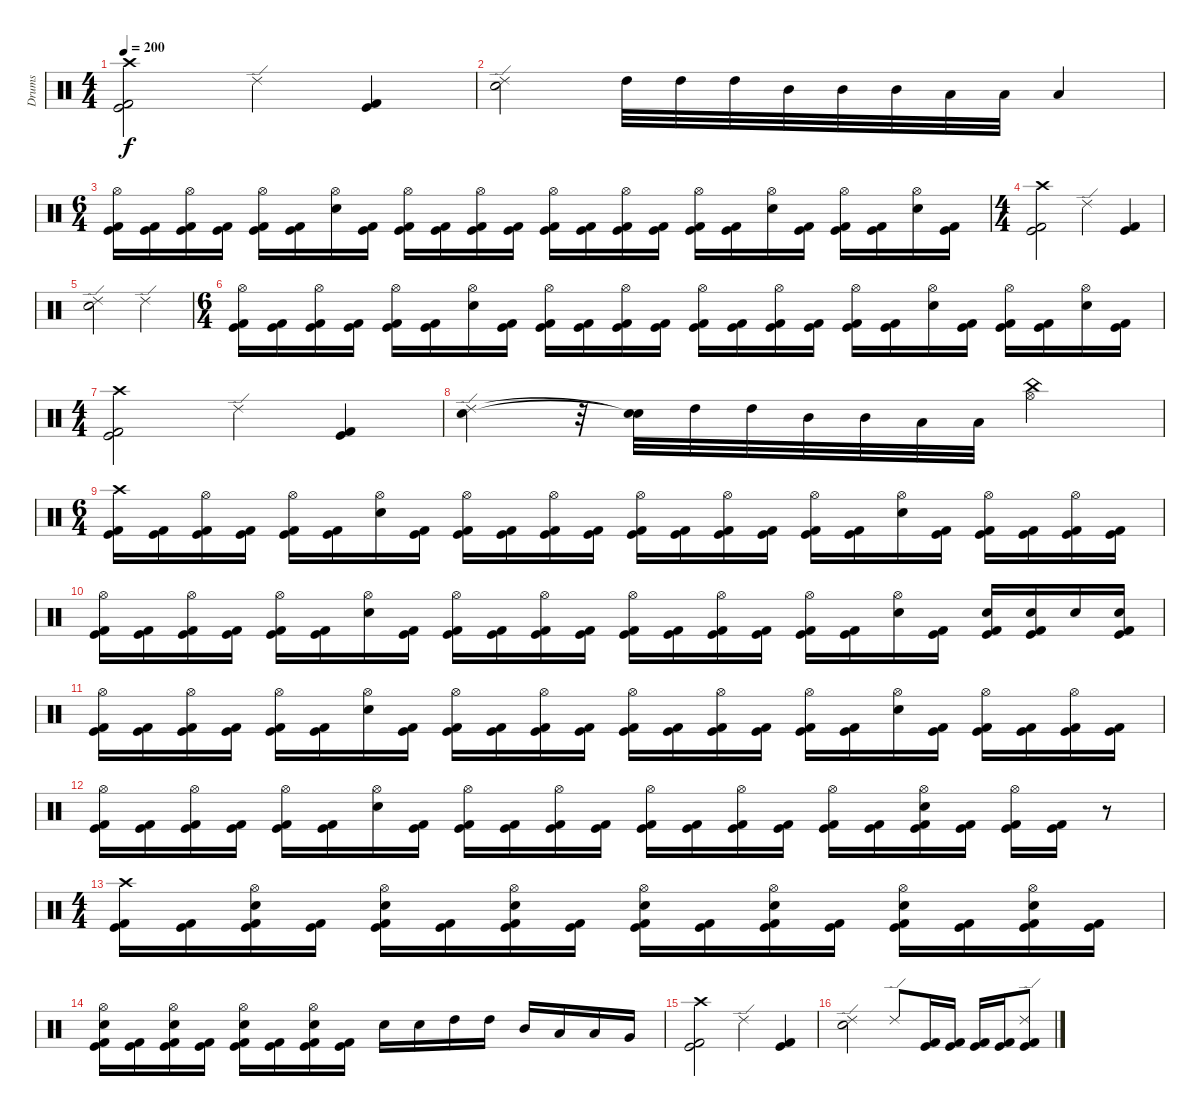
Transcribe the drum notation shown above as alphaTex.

\track ("Drums" "Drums") {instrument percussion}
\staff {score}
\articulation defaults
\ts (4 4)
\tempo 200
\clef neutral
\ks c
("Crash high (hit)" "Kick (hit)" "Kick (hit) 2").2{dy f} "Ride (edge) 2".4 ("Kick (hit)" "Kick (hit) 2").4 |
("Ride (edge) 2" "Electric Snare (hit)").2 "High Tom (hit)".32 "High Tom (hit)".32 "High Tom (hit)".32 "Mid Tom (hit)".32 "Mid Tom (hit)".32 "Mid Tom (hit)".32 "Low Tom (hit)".32 "Low Tom (hit)".32 "Low Tom (hit)".4 |
\ts (6 4)
("Hi-Hat (open)" "Kick (hit)" "Kick (hit) 2").16 ("Kick (hit)" "Kick (hit) 2").16 ("Hi-Hat (open)" "Kick (hit)" "Kick (hit) 2").16 ("Kick (hit)" "Kick (hit) 2").16 ("Hi-Hat (open)" "Kick (hit)" "Kick (hit) 2").16 ("Kick (hit)" "Kick (hit) 2").16 ("Hi-Hat (open)" "Electric Snare (hit)").16 ("Kick (hit)" "Kick (hit) 2").16 ("Hi-Hat (open)" "Kick (hit)" "Kick (hit) 2").16 ("Kick (hit)" "Kick (hit) 2").16 ("Hi-Hat (open)" "Kick (hit)" "Kick (hit) 2").16 ("Kick (hit)" "Kick (hit) 2").16 ("Hi-Hat (open)" "Kick (hit)" "Kick (hit) 2").16 ("Kick (hit)" "Kick (hit) 2").16 ("Hi-Hat (open)" "Kick (hit)" "Kick (hit) 2").16 ("Kick (hit)" "Kick (hit) 2").16 ("Hi-Hat (open)" "Kick (hit)" "Kick (hit) 2").16 ("Kick (hit)" "Kick (hit) 2").16 ("Hi-Hat (open)" "Electric Snare (hit)").16 ("Kick (hit)" "Kick (hit) 2").16 ("Hi-Hat (open)" "Kick (hit)" "Kick (hit) 2").16 ("Kick (hit)" "Kick (hit) 2").16 ("Hi-Hat (open)" "Electric Snare (hit)").16 ("Kick (hit)" "Kick (hit) 2").16 |
\ts (4 4)
("Crash high (hit)" "Kick (hit)" "Kick (hit) 2").2 "Ride (edge) 2".4 ("Kick (hit)" "Kick (hit) 2").4 |
("Ride (edge) 2" "Electric Snare (hit)").2 "Ride (edge) 2".2 |
\ts (6 4)
("Hi-Hat (open)" "Kick (hit)" "Kick (hit) 2").16 ("Kick (hit)" "Kick (hit) 2").16 ("Hi-Hat (open)" "Kick (hit)" "Kick (hit) 2").16 ("Kick (hit)" "Kick (hit) 2").16 ("Hi-Hat (open)" "Kick (hit)" "Kick (hit) 2").16 ("Kick (hit)" "Kick (hit) 2").16 ("Hi-Hat (open)" "Electric Snare (hit)").16 ("Kick (hit)" "Kick (hit) 2").16 ("Hi-Hat (open)" "Kick (hit)" "Kick (hit) 2").16 ("Kick (hit)" "Kick (hit) 2").16 ("Hi-Hat (open)" "Kick (hit)" "Kick (hit) 2").16 ("Kick (hit)" "Kick (hit) 2").16 ("Hi-Hat (open)" "Kick (hit)" "Kick (hit) 2").16 ("Kick (hit)" "Kick (hit) 2").16 ("Hi-Hat (open)" "Kick (hit)" "Kick (hit) 2").16 ("Kick (hit)" "Kick (hit) 2").16 ("Hi-Hat (open)" "Kick (hit)" "Kick (hit) 2").16 ("Kick (hit)" "Kick (hit) 2").16 ("Hi-Hat (open)" "Electric Snare (hit)").16 ("Kick (hit)" "Kick (hit) 2").16 ("Hi-Hat (open)" "Kick (hit)" "Kick (hit) 2").16 ("Kick (hit)" "Kick (hit) 2").16 ("Hi-Hat (open)" "Electric Snare (hit)").16 ("Kick (hit)" "Kick (hit) 2").16 |
\ts (4 4)
("Crash high (hit)" "Kick (hit)" "Kick (hit) 2").2 "Ride (edge) 2".4 ("Kick (hit)" "Kick (hit) 2").4 |
("Ride (edge) 2" "Electric Snare (hit)").4 r.32 ("Snare (hit)"{t} "Snare (hit)"{t}).32 "High Tom (hit)".32 "High Tom (hit)".32 "Mid Tom (hit)".32 "Mid Tom (hit)".32 "Low Tom (hit)".32 "Low Tom (hit)".32 ("China (hit)" "Hi-Hat (open)").2 |
\ts (6 4)
("Crash high (hit)" "Kick (hit)" "Kick (hit) 2").16 ("Kick (hit)" "Kick (hit) 2").16 ("Hi-Hat (open)" "Kick (hit)" "Kick (hit) 2").16 ("Kick (hit)" "Kick (hit) 2").16 ("Hi-Hat (open)" "Kick (hit)" "Kick (hit) 2").16 ("Kick (hit)" "Kick (hit) 2").16 ("Hi-Hat (open)" "Electric Snare (hit)").16 ("Kick (hit)" "Kick (hit) 2").16 ("Hi-Hat (open)" "Kick (hit)" "Kick (hit) 2").16 ("Kick (hit)" "Kick (hit) 2").16 ("Hi-Hat (open)" "Kick (hit)" "Kick (hit) 2").16 ("Kick (hit)" "Kick (hit) 2").16 ("Hi-Hat (open)" "Kick (hit)" "Kick (hit) 2").16 ("Kick (hit)" "Kick (hit) 2").16 ("Hi-Hat (open)" "Kick (hit)" "Kick (hit) 2").16 ("Kick (hit)" "Kick (hit) 2").16 ("Hi-Hat (open)" "Kick (hit)" "Kick (hit) 2").16 ("Kick (hit)" "Kick (hit) 2").16 ("Hi-Hat (open)" "Electric Snare (hit)").16 ("Kick (hit)" "Kick (hit) 2").16 ("Hi-Hat (open)" "Kick (hit)" "Kick (hit) 2").16 ("Kick (hit)" "Kick (hit) 2").16 ("Hi-Hat (open)" "Kick (hit)" "Kick (hit) 2").16 ("Kick (hit)" "Kick (hit) 2").16 |
("Hi-Hat (open)" "Kick (hit)" "Kick (hit) 2").16 ("Kick (hit)" "Kick (hit) 2").16 ("Hi-Hat (open)" "Kick (hit)" "Kick (hit) 2").16 ("Kick (hit)" "Kick (hit) 2").16 ("Hi-Hat (open)" "Kick (hit)" "Kick (hit) 2").16 ("Kick (hit)" "Kick (hit) 2").16 ("Hi-Hat (open)" "Electric Snare (hit)").16 ("Kick (hit)" "Kick (hit) 2").16 ("Hi-Hat (open)" "Kick (hit)" "Kick (hit) 2").16 ("Kick (hit)" "Kick (hit) 2").16 ("Hi-Hat (open)" "Kick (hit)" "Kick (hit) 2").16 ("Kick (hit)" "Kick (hit) 2").16 ("Hi-Hat (open)" "Kick (hit)" "Kick (hit) 2").16 ("Kick (hit)" "Kick (hit) 2").16 ("Hi-Hat (open)" "Kick (hit)" "Kick (hit) 2").16 ("Kick (hit)" "Kick (hit) 2").16 ("Hi-Hat (open)" "Kick (hit)" "Kick (hit) 2").16 ("Kick (hit)" "Kick (hit) 2").16 ("Hi-Hat (open)" "Electric Snare (hit)").16 ("Kick (hit)" "Kick (hit) 2").16 ("Electric Snare (hit)" "Kick (hit)" "Kick (hit) 2").16 ("Electric Snare (hit)" "Kick (hit)" "Kick (hit) 2").16 "Electric Snare (hit)".16 ("Electric Snare (hit)" "Kick (hit)" "Kick (hit) 2").16 |
("Hi-Hat (open)" "Kick (hit)" "Kick (hit) 2").16 ("Kick (hit)" "Kick (hit) 2").16 ("Hi-Hat (open)" "Kick (hit)" "Kick (hit) 2").16 ("Kick (hit)" "Kick (hit) 2").16 ("Hi-Hat (open)" "Kick (hit)" "Kick (hit) 2").16 ("Kick (hit)" "Kick (hit) 2").16 ("Hi-Hat (open)" "Electric Snare (hit)").16 ("Kick (hit)" "Kick (hit) 2").16 ("Hi-Hat (open)" "Kick (hit)" "Kick (hit) 2").16 ("Kick (hit)" "Kick (hit) 2").16 ("Hi-Hat (open)" "Kick (hit)" "Kick (hit) 2").16 ("Kick (hit)" "Kick (hit) 2").16 ("Hi-Hat (open)" "Kick (hit)" "Kick (hit) 2").16 ("Kick (hit)" "Kick (hit) 2").16 ("Hi-Hat (open)" "Kick (hit)" "Kick (hit) 2").16 ("Kick (hit)" "Kick (hit) 2").16 ("Hi-Hat (open)" "Kick (hit)" "Kick (hit) 2").16 ("Kick (hit)" "Kick (hit) 2").16 ("Hi-Hat (open)" "Electric Snare (hit)").16 ("Kick (hit)" "Kick (hit) 2").16 ("Hi-Hat (open)" "Kick (hit)" "Kick (hit) 2").16 ("Kick (hit)" "Kick (hit) 2").16 ("Hi-Hat (open)" "Kick (hit)" "Kick (hit) 2").16 ("Kick (hit)" "Kick (hit) 2").16 |
("Hi-Hat (open)" "Kick (hit)" "Kick (hit) 2").16 ("Kick (hit)" "Kick (hit) 2").16 ("Hi-Hat (open)" "Kick (hit)" "Kick (hit) 2").16 ("Kick (hit)" "Kick (hit) 2").16 ("Hi-Hat (open)" "Kick (hit)" "Kick (hit) 2").16 ("Kick (hit)" "Kick (hit) 2").16 ("Hi-Hat (open)" "Electric Snare (hit)").16 ("Kick (hit)" "Kick (hit) 2").16 ("Hi-Hat (open)" "Kick (hit)" "Kick (hit) 2").16 ("Kick (hit)" "Kick (hit) 2").16 ("Hi-Hat (open)" "Kick (hit)" "Kick (hit) 2").16 ("Kick (hit)" "Kick (hit) 2").16 ("Hi-Hat (open)" "Kick (hit)" "Kick (hit) 2").16 ("Kick (hit)" "Kick (hit) 2").16 ("Hi-Hat (open)" "Kick (hit)" "Kick (hit) 2").16 ("Kick (hit)" "Kick (hit) 2").16 ("Hi-Hat (open)" "Kick (hit)" "Kick (hit) 2").16 ("Kick (hit)" "Kick (hit) 2").16 ("Hi-Hat (open)" "Electric Snare (hit)" "Kick (hit)" "Kick (hit) 2").16 ("Kick (hit)" "Kick (hit) 2").16 ("Hi-Hat (open)" "Kick (hit)" "Kick (hit) 2").16 ("Kick (hit)" "Kick (hit) 2").16 r.8 |
\ts (4 4)
("Crash high (hit)" "Kick (hit)" "Kick (hit) 2").16 ("Kick (hit)" "Kick (hit) 2").16 ("Hi-Hat (open)" "Electric Snare (hit)" "Kick (hit)" "Kick (hit) 2").16 ("Kick (hit)" "Kick (hit) 2").16 ("Hi-Hat (open)" "Electric Snare (hit)" "Kick (hit)" "Kick (hit) 2").16 ("Kick (hit)" "Kick (hit) 2").16 ("Hi-Hat (open)" "Electric Snare (hit)" "Kick (hit)" "Kick (hit) 2").16 ("Kick (hit)" "Kick (hit) 2").16 ("Hi-Hat (open)" "Electric Snare (hit)" "Kick (hit)" "Kick (hit) 2").16 ("Kick (hit)" "Kick (hit) 2").16 ("Hi-Hat (open)" "Electric Snare (hit)" "Kick (hit)" "Kick (hit) 2").16 ("Kick (hit)" "Kick (hit) 2").16 ("Hi-Hat (open)" "Electric Snare (hit)" "Kick (hit)" "Kick (hit) 2").16 ("Kick (hit)" "Kick (hit) 2").16 ("Hi-Hat (open)" "Electric Snare (hit)" "Kick (hit)" "Kick (hit) 2").16 ("Kick (hit)" "Kick (hit) 2").16 |
("Hi-Hat (open)" "Electric Snare (hit)" "Kick (hit)" "Kick (hit) 2").16 ("Kick (hit)" "Kick (hit) 2").16 ("Hi-Hat (open)" "Electric Snare (hit)" "Kick (hit)" "Kick (hit) 2").16 ("Kick (hit)" "Kick (hit) 2").16 ("Hi-Hat (open)" "Electric Snare (hit)" "Kick (hit)" "Kick (hit) 2").16 ("Kick (hit)" "Kick (hit) 2").16 ("Hi-Hat (open)" "Electric Snare (hit)" "Kick (hit)" "Kick (hit) 2").16 ("Kick (hit)" "Kick (hit) 2").16 "Electric Snare (hit)".16 "Electric Snare (hit)".16 "High Tom (hit)".16 "High Tom (hit)".16 "Mid Tom (hit)".16 "Low Tom (hit)".16 "Low Tom (hit)".16 "Very Low Tom (hit)".16 |
("Crash high (hit)" "Kick (hit)" "Kick (hit) 2").2 "Ride (edge) 2".4 ("Kick (hit)" "Kick (hit) 2").4 |
("Ride (edge) 2" "Electric Snare (hit)").2 "Ride (edge) 2".8 ("Kick (hit)" "Kick (hit) 2").16 ("Kick (hit)" "Kick (hit) 2").16 ("Kick (hit)" "Kick (hit) 2").16 ("Kick (hit)" "Kick (hit) 2").16 ("Ride (edge) 2" "Kick (hit)" "Kick (hit) 2").8
